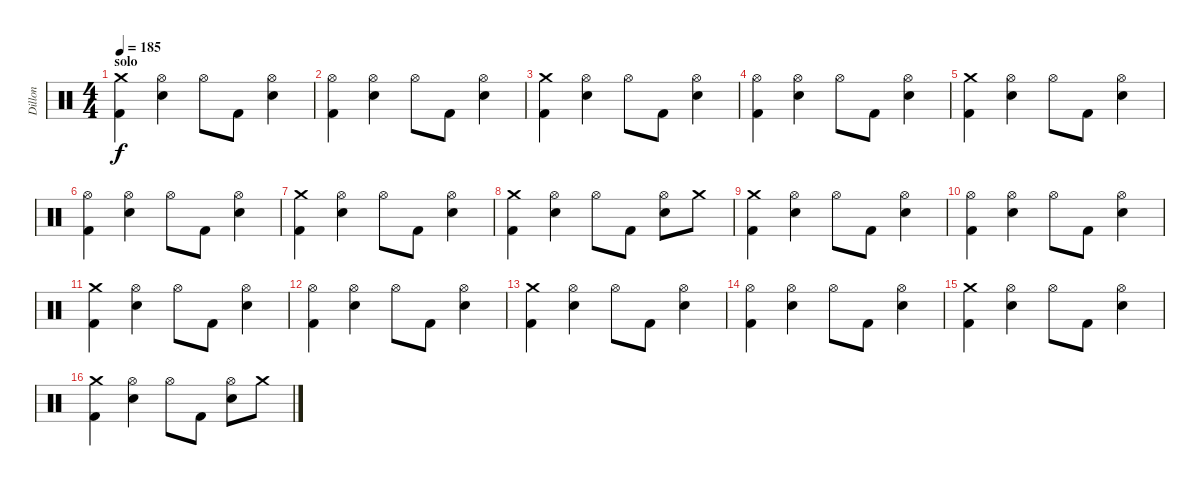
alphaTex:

\track ("Dillon" "Dillon") {instrument percussion}
\staff {score}
\articulation defaults
\ts (4 4)
\section ("" "solo")
\tempo 185
\clef neutral
\ks c
("Crash medium (hit)" "Kick (hit) 2").4{dy f} ("Hi-Hat (open)" "Electric Snare (hit)").4 "Hi-Hat (open)".8 "Kick (hit) 2".8 ("Hi-Hat (open)" "Electric Snare (hit)").4 |
("Hi-Hat (open)" "Kick (hit) 2").4 ("Hi-Hat (open)" "Electric Snare (hit)").4 "Hi-Hat (open)".8 "Kick (hit) 2".8 ("Hi-Hat (open)" "Electric Snare (hit)").4 |
("Crash medium (hit)" "Kick (hit) 2").4 ("Hi-Hat (open)" "Electric Snare (hit)").4 "Hi-Hat (open)".8 "Kick (hit) 2".8 ("Hi-Hat (open)" "Electric Snare (hit)").4 |
("Hi-Hat (open)" "Kick (hit) 2").4 ("Hi-Hat (open)" "Electric Snare (hit)").4 "Hi-Hat (open)".8 "Kick (hit) 2".8 ("Hi-Hat (open)" "Electric Snare (hit)").4 |
("Crash medium (hit)" "Kick (hit) 2").4 ("Hi-Hat (open)" "Electric Snare (hit)").4 "Hi-Hat (open)".8 "Kick (hit) 2".8 ("Hi-Hat (open)" "Electric Snare (hit)").4 |
("Hi-Hat (open)" "Kick (hit) 2").4 ("Hi-Hat (open)" "Electric Snare (hit)").4 "Hi-Hat (open)".8 "Kick (hit) 2".8 ("Hi-Hat (open)" "Electric Snare (hit)").4 |
("Crash medium (hit)" "Kick (hit) 2").4 ("Hi-Hat (open)" "Electric Snare (hit)").4 "Hi-Hat (open)".8 "Kick (hit) 2".8 ("Hi-Hat (open)" "Electric Snare (hit)").4 |
("Crash medium (hit)" "Kick (hit) 2").4 ("Hi-Hat (open)" "Electric Snare (hit)").4 "Hi-Hat (open)".8 "Kick (hit) 2".8 ("Hi-Hat (open)" "Electric Snare (hit)").8 "Crash medium (hit)".8 |
("Crash medium (hit)" "Kick (hit) 2").4 ("Hi-Hat (open)" "Electric Snare (hit)").4 "Hi-Hat (open)".8 "Kick (hit) 2".8 ("Hi-Hat (open)" "Electric Snare (hit)").4 |
("Hi-Hat (open)" "Kick (hit) 2").4 ("Hi-Hat (open)" "Electric Snare (hit)").4 "Hi-Hat (open)".8 "Kick (hit) 2".8 ("Hi-Hat (open)" "Electric Snare (hit)").4 |
("Crash medium (hit)" "Kick (hit) 2").4 ("Hi-Hat (open)" "Electric Snare (hit)").4 "Hi-Hat (open)".8 "Kick (hit) 2".8 ("Hi-Hat (open)" "Electric Snare (hit)").4 |
("Hi-Hat (open)" "Kick (hit) 2").4 ("Hi-Hat (open)" "Electric Snare (hit)").4 "Hi-Hat (open)".8 "Kick (hit) 2".8 ("Hi-Hat (open)" "Electric Snare (hit)").4 |
("Crash medium (hit)" "Kick (hit) 2").4 ("Hi-Hat (open)" "Electric Snare (hit)").4 "Hi-Hat (open)".8 "Kick (hit) 2".8 ("Hi-Hat (open)" "Electric Snare (hit)").4 |
("Hi-Hat (open)" "Kick (hit) 2").4 ("Hi-Hat (open)" "Electric Snare (hit)").4 "Hi-Hat (open)".8 "Kick (hit) 2".8 ("Hi-Hat (open)" "Electric Snare (hit)").4 |
("Crash medium (hit)" "Kick (hit) 2").4 ("Hi-Hat (open)" "Electric Snare (hit)").4 "Hi-Hat (open)".8 "Kick (hit) 2".8 ("Hi-Hat (open)" "Electric Snare (hit)").4 |
("Crash medium (hit)" "Kick (hit) 2").4 ("Hi-Hat (open)" "Electric Snare (hit)").4 "Hi-Hat (open)".8 "Kick (hit) 2".8 ("Hi-Hat (open)" "Electric Snare (hit)").8 "Crash medium (hit)".8
